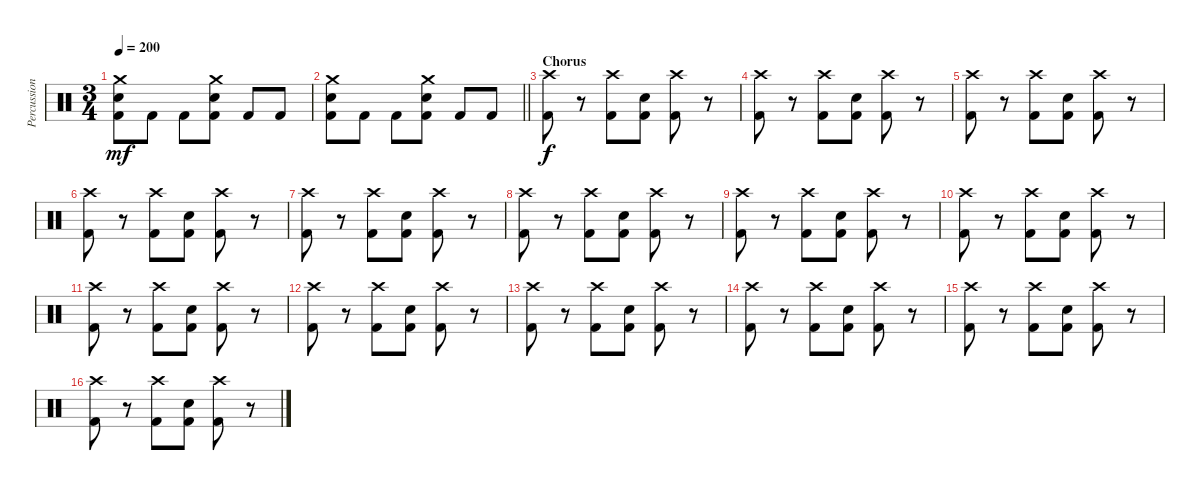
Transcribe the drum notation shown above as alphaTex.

\track ("Percussion" "Percussion") {instrument percussion}
\staff {score}
\articulation defaults
\ts (3 4)
\tempo 200
\clef neutral
\ks c
("Crash medium (hit)" "Electric Snare (hit)" "Kick (hit) 2").8{dy mf} "Kick (hit) 2".8 "Kick (hit) 2".8 ("Crash medium (hit)" "Electric Snare (hit)" "Kick (hit) 2").8 "Kick (hit) 2".8 "Kick (hit) 2".8 |
\barLineRight lightlight
("Crash medium (hit)" "Electric Snare (hit)" "Kick (hit) 2").8 "Kick (hit) 2".8 "Kick (hit) 2".8 ("Crash medium (hit)" "Electric Snare (hit)" "Kick (hit) 2").8 "Kick (hit) 2".8 "Kick (hit) 2".8 |
\section ("" "Chorus")
("Crash high (hit)" "Kick (hit) 2").8{dy f} r.8 ("Crash high (hit)" "Kick (hit) 2").8 ("Electric Snare (hit)" "Kick (hit) 2").8 ("Crash high (hit)" "Kick (hit) 2").8 r.8 |
("Crash high (hit)" "Kick (hit) 2").8 r.8 ("Crash high (hit)" "Kick (hit) 2").8 ("Electric Snare (hit)" "Kick (hit) 2").8 ("Crash high (hit)" "Kick (hit) 2").8 r.8 |
("Crash high (hit)" "Kick (hit) 2").8 r.8 ("Crash high (hit)" "Kick (hit) 2").8 ("Electric Snare (hit)" "Kick (hit) 2").8 ("Crash high (hit)" "Kick (hit) 2").8 r.8 |
("Crash high (hit)" "Kick (hit) 2").8 r.8 ("Crash high (hit)" "Kick (hit) 2").8 ("Electric Snare (hit)" "Kick (hit) 2").8 ("Crash high (hit)" "Kick (hit) 2").8 r.8 |
("Crash high (hit)" "Kick (hit) 2").8 r.8 ("Crash high (hit)" "Kick (hit) 2").8 ("Electric Snare (hit)" "Kick (hit) 2").8 ("Crash high (hit)" "Kick (hit) 2").8 r.8 |
("Crash high (hit)" "Kick (hit) 2").8 r.8 ("Crash high (hit)" "Kick (hit) 2").8 ("Electric Snare (hit)" "Kick (hit) 2").8 ("Crash high (hit)" "Kick (hit) 2").8 r.8 |
("Crash high (hit)" "Kick (hit) 2").8 r.8 ("Crash high (hit)" "Kick (hit) 2").8 ("Electric Snare (hit)" "Kick (hit) 2").8 ("Crash high (hit)" "Kick (hit) 2").8 r.8 |
("Crash high (hit)" "Kick (hit) 2").8 r.8 ("Crash high (hit)" "Kick (hit) 2").8 ("Electric Snare (hit)" "Kick (hit) 2").8 ("Crash high (hit)" "Kick (hit) 2").8 r.8 |
("Crash high (hit)" "Kick (hit) 2").8 r.8 ("Crash high (hit)" "Kick (hit) 2").8 ("Electric Snare (hit)" "Kick (hit) 2").8 ("Crash high (hit)" "Kick (hit) 2").8 r.8 |
("Crash high (hit)" "Kick (hit) 2").8 r.8 ("Crash high (hit)" "Kick (hit) 2").8 ("Electric Snare (hit)" "Kick (hit) 2").8 ("Crash high (hit)" "Kick (hit) 2").8 r.8 |
("Crash high (hit)" "Kick (hit) 2").8 r.8 ("Crash high (hit)" "Kick (hit) 2").8 ("Electric Snare (hit)" "Kick (hit) 2").8 ("Crash high (hit)" "Kick (hit) 2").8 r.8 |
("Crash high (hit)" "Kick (hit) 2").8 r.8 ("Crash high (hit)" "Kick (hit) 2").8 ("Electric Snare (hit)" "Kick (hit) 2").8 ("Crash high (hit)" "Kick (hit) 2").8 r.8 |
("Crash high (hit)" "Kick (hit) 2").8 r.8 ("Crash high (hit)" "Kick (hit) 2").8 ("Electric Snare (hit)" "Kick (hit) 2").8 ("Crash high (hit)" "Kick (hit) 2").8 r.8 |
("Crash high (hit)" "Kick (hit) 2").8 r.8 ("Crash high (hit)" "Kick (hit) 2").8 ("Electric Snare (hit)" "Kick (hit) 2").8 ("Crash high (hit)" "Kick (hit) 2").8 r.8
